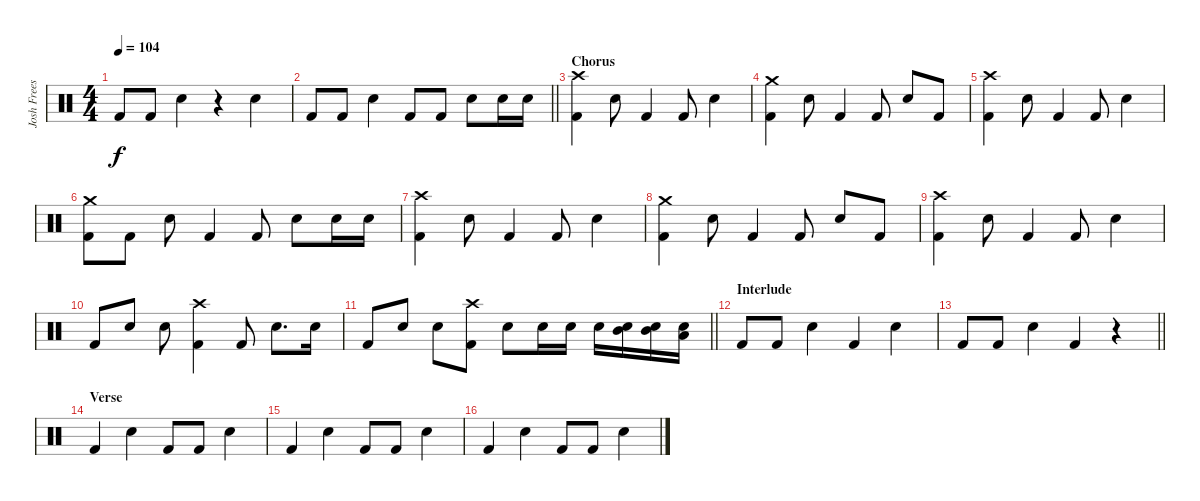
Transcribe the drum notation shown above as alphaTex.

\track ("Josh Freese (Studio Drummer)" "Josh Frees") {instrument percussion}
\staff {score}
\articulation defaults
\ts (4 4)
\tempo 104
\clef neutral
\ks c "Kick (hit) 2".8{dy f} "Kick (hit) 2".8 "Electric Snare (hit)".4
r.4 "Electric Snare (hit)".4 |
\barLineRight lightlight "Kick (hit) 2".8 "Kick (hit) 2".8 "Electric Snare (hit)".4 "Kick (hit) 2".8 "Kick (hit) 2".8 "Electric Snare (hit)".8 "Electric Snare (hit)".16 "Electric Snare (hit)".16
|
\section ("" "Chorus")
("Crash high (hit)" "Kick (hit) 2").4 "Electric Snare (hit)".8 "Kick (hit) 2".4 "Kick (hit) 2".8 "Electric Snare (hit)".4 |
("Crash medium (hit)" "Kick (hit) 2").4 "Electric Snare (hit)".8 "Kick (hit) 2".4 "Kick (hit) 2".8 "Electric Snare (hit)".8 "Kick (hit) 2".8 |
("Crash high (hit)" "Kick (hit) 2").4 "Electric Snare (hit)".8 "Kick (hit) 2".4 "Kick (hit) 2".8 "Electric Snare (hit)".4 |
("Crash medium (hit)" "Kick (hit) 2").8 "Kick (hit) 2".8 "Electric Snare (hit)".8 "Kick (hit) 2".4 "Kick (hit) 2".8 "Electric Snare (hit)".8 "Electric Snare (hit)".16 "Electric Snare (hit)".16 |
("Crash high (hit)" "Kick (hit) 2").4 "Electric Snare (hit)".8 "Kick (hit) 2".4 "Kick (hit) 2".8 "Electric Snare (hit)".4 |
("Crash medium (hit)" "Kick (hit) 2").4 "Electric Snare (hit)".8 "Kick (hit) 2".4 "Kick (hit) 2".8 "Electric Snare (hit)".8 "Kick (hit) 2".8 |
("Crash high (hit)" "Kick (hit) 2").4 "Electric Snare (hit)".8 "Kick (hit) 2".4 "Kick (hit) 2".8 "Electric Snare (hit)".4 |
"Kick (hit) 2".8 "Electric Snare (hit)".8 "Electric Snare (hit)".8 ("Crash high (hit)" "Kick (hit) 2").4 "Kick (hit) 2".8 "Electric Snare (hit)".8{d} "Electric Snare (hit)".16 |
\barLineRight lightlight "Kick (hit) 2".8 "Electric Snare (hit)".8 "Electric Snare (hit)".8
("Crash high (hit)" "Kick (hit) 2").8 "Electric Snare (hit)".8 "Electric Snare (hit)".16 "Electric Snare (hit)".16 "Electric Snare (hit)".16 ("Electric Snare (hit)" "Mid Tom (hit)").16 ("Electric Snare (hit)" "Mid Tom (hit)").16 ("Electric Snare (hit)" "Low Tom (hit)").16 |
\section ("" "Interlude")
"Kick (hit) 2".8 "Kick (hit) 2".8 "Electric Snare (hit)".4 "Kick (hit) 2".4 "Electric Snare (hit)".4 |
\barLineRight lightlight "Kick (hit) 2".8 "Kick (hit) 2".8 "Electric Snare (hit)".4 "Kick (hit) 2".4
r.4 |
\section ("" "Verse")
"Kick (hit) 2".4 "Electric Snare (hit)".4 "Kick (hit) 2".8 "Kick (hit) 2".8 "Electric Snare (hit)".4 |
"Kick (hit) 2".4 "Electric Snare (hit)".4 "Kick (hit) 2".8 "Kick (hit) 2".8 "Electric Snare (hit)".4 |
"Kick (hit) 2".4 "Electric Snare (hit)".4 "Kick (hit) 2".8 "Kick (hit) 2".8 "Electric Snare (hit)".4
